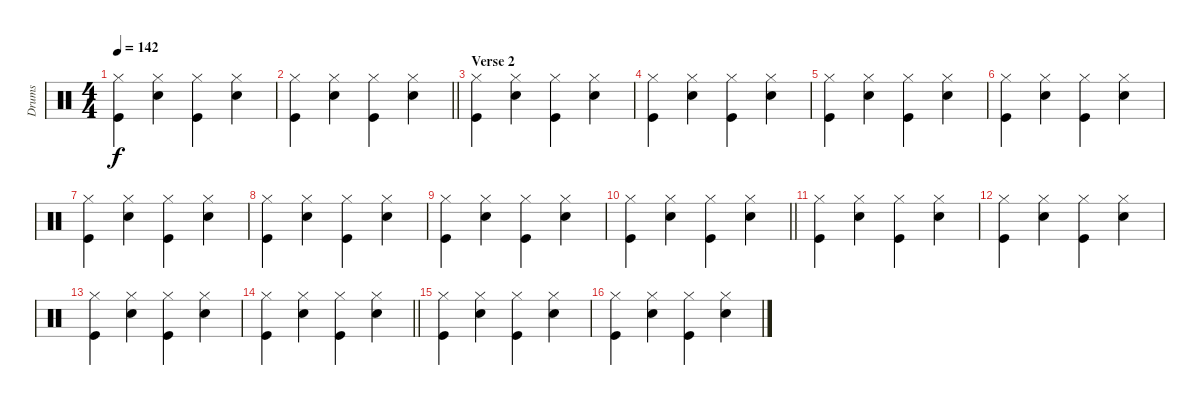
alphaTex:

\track ("Drums" "Drums") {instrument percussion}
\staff {score}
\articulation defaults
\ts (4 4)
\tempo 142
\clef neutral
\ks c
("Hi-Hat (closed)" "Kick (hit)").4{dy f} ("Hi-Hat (closed)" "Snare (hit) 2").4 ("Hi-Hat (closed)" "Kick (hit)").4 ("Hi-Hat (closed)" "Snare (hit) 2").4 |
\barLineRight lightlight
("Hi-Hat (closed)" "Kick (hit)").4 ("Hi-Hat (closed)" "Snare (hit) 2").4 ("Hi-Hat (closed)" "Kick (hit)").4 ("Hi-Hat (closed)" "Snare (hit) 2").4 |
\section ("" "Verse 2")
("Hi-Hat (closed)" "Kick (hit)").4 ("Hi-Hat (closed)" "Snare (hit) 2").4 ("Hi-Hat (closed)" "Kick (hit)").4 ("Hi-Hat (closed)" "Snare (hit) 2").4 |
("Hi-Hat (closed)" "Kick (hit)").4 ("Hi-Hat (closed)" "Snare (hit) 2").4 ("Hi-Hat (closed)" "Kick (hit)").4 ("Hi-Hat (closed)" "Snare (hit) 2").4 |
("Hi-Hat (closed)" "Kick (hit)").4 ("Hi-Hat (closed)" "Snare (hit) 2").4 ("Hi-Hat (closed)" "Kick (hit)").4 ("Hi-Hat (closed)" "Snare (hit) 2").4 |
("Hi-Hat (closed)" "Kick (hit)").4 ("Hi-Hat (closed)" "Snare (hit) 2").4 ("Hi-Hat (closed)" "Kick (hit)").4 ("Hi-Hat (closed)" "Snare (hit) 2").4 |
("Hi-Hat (closed)" "Kick (hit)").4 ("Hi-Hat (closed)" "Snare (hit) 2").4 ("Hi-Hat (closed)" "Kick (hit)").4 ("Hi-Hat (closed)" "Snare (hit) 2").4 |
("Hi-Hat (closed)" "Kick (hit)").4 ("Hi-Hat (closed)" "Snare (hit) 2").4 ("Hi-Hat (closed)" "Kick (hit)").4 ("Hi-Hat (closed)" "Snare (hit) 2").4 |
("Hi-Hat (closed)" "Kick (hit)").4 ("Hi-Hat (closed)" "Snare (hit) 2").4 ("Hi-Hat (closed)" "Kick (hit)").4 ("Hi-Hat (closed)" "Snare (hit) 2").4 |
\barLineRight lightlight
("Hi-Hat (closed)" "Kick (hit)").4 ("Hi-Hat (closed)" "Snare (hit) 2").4 ("Hi-Hat (closed)" "Kick (hit)").4 ("Hi-Hat (closed)" "Snare (hit) 2").4 |
("Hi-Hat (closed)" "Kick (hit)").4 ("Hi-Hat (closed)" "Snare (hit) 2").4 ("Hi-Hat (closed)" "Kick (hit)").4 ("Hi-Hat (closed)" "Snare (hit) 2").4 |
("Hi-Hat (closed)" "Kick (hit)").4 ("Hi-Hat (closed)" "Snare (hit) 2").4 ("Hi-Hat (closed)" "Kick (hit)").4 ("Hi-Hat (closed)" "Snare (hit) 2").4 |
("Hi-Hat (closed)" "Kick (hit)").4 ("Hi-Hat (closed)" "Snare (hit) 2").4 ("Hi-Hat (closed)" "Kick (hit)").4 ("Hi-Hat (closed)" "Snare (hit) 2").4 |
\barLineRight lightlight
("Hi-Hat (closed)" "Kick (hit)").4 ("Hi-Hat (closed)" "Snare (hit) 2").4 ("Hi-Hat (closed)" "Kick (hit)").4 ("Hi-Hat (closed)" "Snare (hit) 2").4 |
("Hi-Hat (closed)" "Kick (hit)").4 ("Hi-Hat (closed)" "Snare (hit) 2").4 ("Hi-Hat (closed)" "Kick (hit)").4 ("Hi-Hat (closed)" "Snare (hit) 2").4 |
("Hi-Hat (closed)" "Kick (hit)").4 ("Hi-Hat (closed)" "Snare (hit) 2").4 ("Hi-Hat (closed)" "Kick (hit)").4 ("Hi-Hat (closed)" "Snare (hit) 2").4
